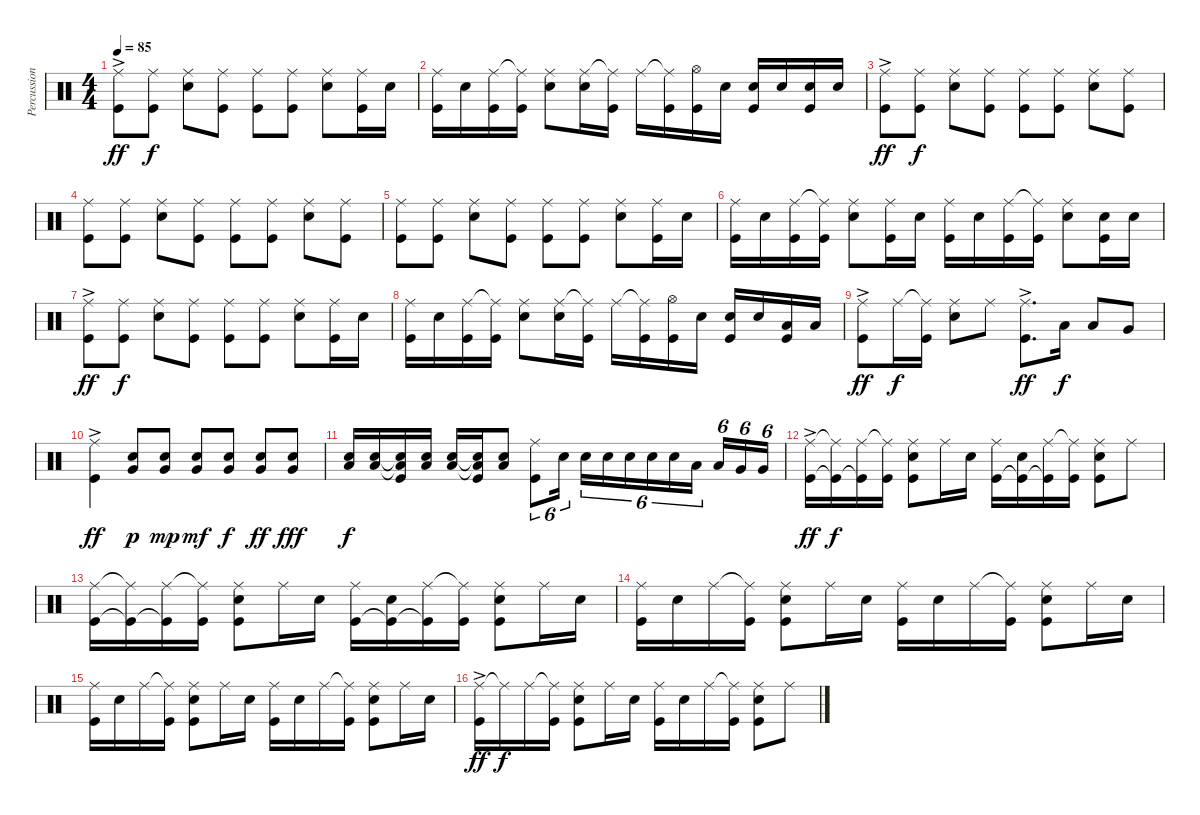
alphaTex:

\track ("Percussion" "Percussion") {instrument percussion}
\staff {score}
\articulation defaults
\ts (4 4)
\tempo 85
\clef neutral
\ks c
("Ride (middle)"{ac} "Kick (hit)").8{dy ff} ("Ride (middle)" "Kick (hit)").8{dy f} ("Ride (middle)" "Snare (hit) 2").8 ("Ride (middle)" "Kick (hit)").8 ("Ride (middle)" "Kick (hit)").8 ("Ride (middle)" "Kick (hit)").8 ("Ride (middle)" "Snare (hit) 2").8 ("Ride (middle)" "Kick (hit)").16 "Snare (hit) 2".16 |
("Ride (middle)" "Kick (hit)").16 "Snare (hit) 2".16 ("Ride (middle)" "Kick (hit)").16 ("Ride (middle)"{t} "Kick (hit)").16 ("Ride (middle)" "Snare (hit) 2").8 ("Ride (middle)" "Snare (hit) 2").16 ("Ride (middle)"{t} "Kick (hit)").16 "Ride (middle)".16 ("Ride (middle)"{t} "Kick (hit)").16 ("Hi-Hat (open)" "Kick (hit)").16 "Snare (hit) 2".16 ("Snare (hit) 2" "Kick (hit)").16 "Snare (hit) 2".16 ("Snare (hit) 2" "Kick (hit)").16 "Snare (hit) 2".16 |
("Ride (middle)"{ac} "Kick (hit)").8{dy ff} ("Ride (middle)" "Kick (hit)").8{dy f} ("Ride (middle)" "Snare (hit) 2").8 ("Ride (middle)" "Kick (hit)").8 ("Ride (middle)" "Kick (hit)").8 ("Ride (middle)" "Kick (hit)").8 ("Ride (middle)" "Snare (hit) 2").8 ("Ride (middle)" "Kick (hit)").8 |
("Ride (middle)" "Kick (hit)").8 ("Ride (middle)" "Kick (hit)").8 ("Ride (middle)" "Snare (hit) 2").8 ("Ride (middle)" "Kick (hit)").8 ("Ride (middle)" "Kick (hit)").8 ("Ride (middle)" "Kick (hit)").8 ("Ride (middle)" "Snare (hit) 2").8 ("Ride (middle)" "Kick (hit)").8 |
("Ride (middle)" "Kick (hit)").8 ("Ride (middle)" "Kick (hit)").8 ("Ride (middle)" "Snare (hit) 2").8 ("Ride (middle)" "Kick (hit)").8 ("Ride (middle)" "Kick (hit)").8 ("Ride (middle)" "Kick (hit)").8 ("Ride (middle)" "Snare (hit) 2").8 ("Ride (middle)" "Kick (hit)").16 "Snare (hit) 2".16 |
("Ride (middle)" "Kick (hit)").16 "Snare (hit) 2".16 ("Ride (middle)" "Kick (hit)").16 ("Ride (middle)"{t} "Kick (hit)").16 ("Ride (middle)" "Snare (hit) 2").8 ("Ride (middle)" "Kick (hit)").16 "Snare (hit) 2".16 ("Ride (middle)" "Kick (hit)").16 "Snare (hit) 2".16 ("Ride (middle)" "Kick (hit)").16 ("Ride (middle)"{t} "Kick (hit)").16 ("Ride (middle)" "Snare (hit) 2").8 ("Snare (hit) 2" "Kick (hit)").16 "Snare (hit) 2".16 |
("Ride (middle)"{ac} "Kick (hit)").8{dy ff} ("Ride (middle)" "Kick (hit)").8{dy f} ("Ride (middle)" "Snare (hit) 2").8 ("Ride (middle)" "Kick (hit)").8 ("Ride (middle)" "Kick (hit)").8 ("Ride (middle)" "Kick (hit)").8 ("Ride (middle)" "Snare (hit) 2").8 ("Ride (middle)" "Kick (hit)").16 "Snare (hit) 2".16 |
("Ride (middle)" "Kick (hit)").16 "Snare (hit) 2".16 ("Ride (middle)" "Kick (hit)").16 ("Ride (middle)"{t} "Kick (hit)").16 ("Ride (middle)" "Snare (hit) 2").8 ("Ride (middle)" "Snare (hit) 2").16 ("Ride (middle)"{t} "Kick (hit)").16 "Ride (middle)".16 ("Ride (middle)"{t} "Kick (hit)").16 ("Hi-Hat (open)" "Kick (hit)").16 "Snare (hit) 2".16 ("Snare (hit) 2" "Kick (hit)").16 "Snare (hit) 2".16 ("Low Tom (hit)" "Kick (hit)").16 "Low Tom (hit)".16 |
("Ride (middle)"{ac} "Kick (hit)").8{dy ff} "Ride (middle)".16{dy f} ("Ride (middle)"{t} "Kick (hit)").16 ("Ride (middle)" "Snare (hit) 2").8 "Ride (middle)".8 ("Ride (middle)"{ac} "Kick (hit)").8{d dy ff} "Low Tom (hit)".16{dy f} "Low Tom (hit)".8 "Very Low Tom (hit)".8 |
("Ride (middle)"{ac} "Kick (hit)").4{dy ff} ("Snare (hit) 2" "Very Low Tom (hit)").8{dy p} ("Snare (hit) 2" "Very Low Tom (hit)").8{dy mp} ("Snare (hit) 2" "Very Low Tom (hit)").8{dy mf} ("Snare (hit) 2" "Very Low Tom (hit)").8{dy f} ("Snare (hit) 2" "Very Low Tom (hit)").8{dy ff} ("Snare (hit) 2" "Very Low Tom (hit)").8{dy fff} |
("Snare (hit) 2" "Low Tom (hit)").16{dy f} ("Snare (hit) 2" "Low Tom (hit)").16 ("Snare (hit) 2"{t} "Low Tom (hit)"{t} "Kick (hit)").16 ("Snare (hit) 2" "Low Tom (hit)").16 ("Snare (hit) 2" "Low Tom (hit)").16 ("Snare (hit) 2"{t} "Low Tom (hit)"{t} "Kick (hit)").16 ("Snare (hit) 2" "Low Tom (hit)").8 ("Ride (middle)" "Kick (hit)").8{tu (6 4)} "Snare (hit) 2".16{tu (6 4) beam splitsecondary} "Snare (hit) 2".16{tu (6 4)} "Snare (hit) 2".16{tu (6 4)} "Snare (hit) 2".16{tu (6 4)} "Snare (hit) 2".16{tu (6 4)} "Snare (hit) 2".16{tu (6 4)} "Low Tom (hit)".16{tu (6 4) beam splitsecondary} "Low Tom (hit)".16{tu (6 4)} "Very Low Tom (hit)".16{tu (6 4)} "Very Low Tom (hit)".16{tu (6 4)} |
("Ride (middle)"{ac} "Kick (hit)").16{dy ff} ("Ride (middle)"{t} "Kick (hit)"{t}).16{dy f} ("Ride (middle)" "Kick (hit)"{t}).16 ("Ride (middle)"{t} "Kick (hit)").16 ("Ride (middle)" "Snare (hit) 2" "Kick (hit)").8 "Ride (middle)".16 "Snare (hit) 2".16 ("Ride (middle)" "Kick (hit)").16 ("Snare (hit) 2" "Kick (hit)"{t}).16 ("Ride (middle)" "Kick (hit)"{t}).16 ("Ride (middle)"{t} "Kick (hit)").16 ("Ride (middle)" "Snare (hit) 2" "Kick (hit)").8 "Ride (middle)".8 |
("Ride (middle)" "Kick (hit)").16 ("Ride (middle)"{t} "Kick (hit)"{t}).16 ("Ride (middle)" "Kick (hit)"{t}).16 ("Ride (middle)"{t} "Kick (hit)").16 ("Ride (middle)" "Snare (hit) 2" "Kick (hit)").8 "Ride (middle)".16 "Snare (hit) 2".16 ("Ride (middle)" "Kick (hit)").16 ("Snare (hit) 2" "Kick (hit)"{t}).16 ("Ride (middle)" "Kick (hit)"{t}).16 ("Ride (middle)"{t} "Kick (hit)").16 ("Ride (middle)" "Snare (hit) 2" "Kick (hit)").8 "Ride (middle)".16 "Snare (hit) 2".16 |
("Ride (middle)" "Kick (hit)").16 "Snare (hit) 2".16 "Ride (middle)".16 ("Ride (middle)"{t} "Kick (hit)").16 ("Ride (middle)" "Snare (hit) 2" "Kick (hit)").8 "Ride (middle)".16 "Snare (hit) 2".16 ("Ride (middle)" "Kick (hit)").16 "Snare (hit) 2".16 "Ride (middle)".16 ("Ride (middle)"{t} "Kick (hit)").16 ("Ride (middle)" "Snare (hit) 2" "Kick (hit)").8 "Ride (middle)".16 "Snare (hit) 2".16 |
("Ride (middle)" "Kick (hit)").16 "Snare (hit) 2".16 "Ride (middle)".16 ("Ride (middle)"{t} "Kick (hit)").16 ("Ride (middle)" "Snare (hit) 2" "Kick (hit)").8 "Ride (middle)".16 "Snare (hit) 2".16 ("Ride (middle)" "Kick (hit)").16 "Snare (hit) 2".16 "Ride (middle)".16 ("Ride (middle)"{t} "Kick (hit)").16 ("Ride (middle)" "Snare (hit) 2" "Kick (hit)").8 "Ride (middle)".16 "Snare (hit) 2".16 |
("Ride (middle)"{ac} "Kick (hit)").16{dy ff} "Ride (middle)"{t}.16{dy f} "Ride (middle)".16 ("Ride (middle)"{t} "Kick (hit)").16 ("Ride (middle)" "Snare (hit) 2" "Kick (hit)").8 "Ride (middle)".16 "Snare (hit) 2".16 ("Ride (middle)" "Kick (hit)").16 "Snare (hit) 2".16 "Ride (middle)".16 ("Ride (middle)"{t} "Kick (hit)").16 ("Ride (middle)" "Snare (hit) 2" "Kick (hit)").8 "Ride (middle)".8
